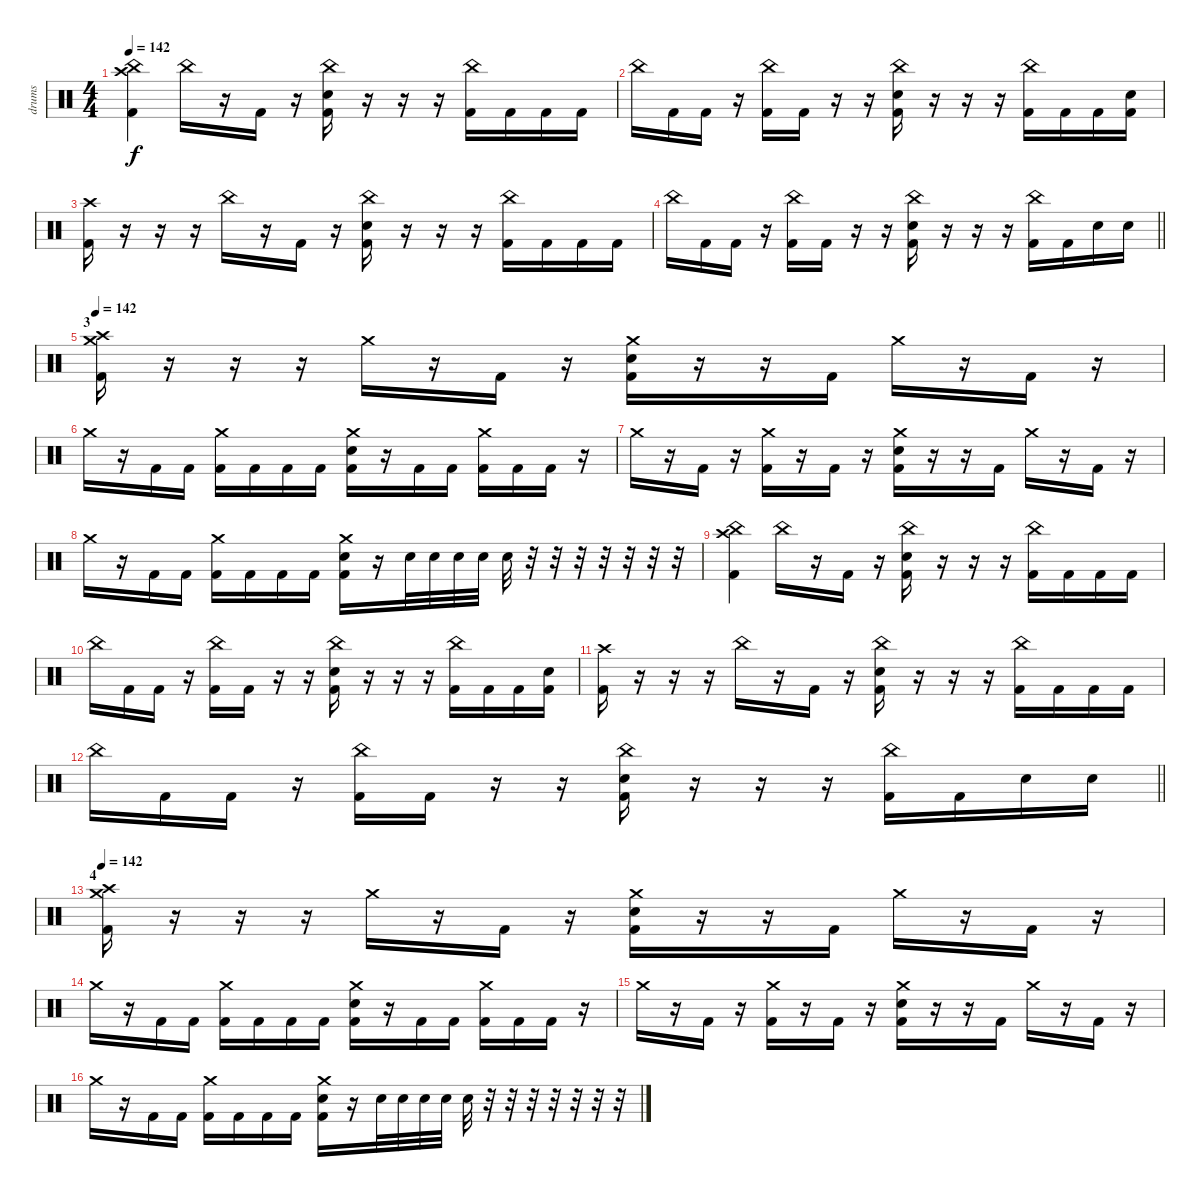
\track ("drums" "drums") {instrument percussion}
\staff {score}
\articulation defaults
\ts (4 4)
\tempo 142
\clef neutral
\ks c
("China (hit)" "Crash high (hit)" "Kick (hit) 2").4{dy f} "China (hit)".16 r.16 "Kick (hit) 2".16 r.16 ("China (hit)" "Electric Snare (hit)" "Kick (hit) 2").16 r.16 r.16 r.16 ("China (hit)" "Kick (hit) 2").16 "Kick (hit) 2".16 "Kick (hit) 2".16 "Kick (hit) 2".16 |
"China (hit)".16 "Kick (hit) 2".16 "Kick (hit) 2".16 r.16 ("China (hit)" "Kick (hit) 2").16 "Kick (hit) 2".16 r.16 r.16 ("China (hit)" "Electric Snare (hit)" "Kick (hit) 2").16 r.16 r.16 r.16 ("China (hit)" "Kick (hit) 2").16 "Kick (hit) 2".16 "Kick (hit) 2".16 ("Electric Snare (hit)" "Kick (hit) 2").16 |
("Crash high (hit)" "Kick (hit) 2").16 r.16 r.16 r.16 "China (hit)".16 r.16 "Kick (hit) 2".16 r.16 ("China (hit)" "Electric Snare (hit)" "Kick (hit) 2").16 r.16 r.16 r.16 ("China (hit)" "Kick (hit) 2").16 "Kick (hit) 2".16 "Kick (hit) 2".16 "Kick (hit) 2".16 |
\barLineRight lightlight "China (hit)".16 "Kick (hit) 2".16 "Kick (hit) 2".16
r.16 ("China (hit)" "Kick (hit) 2").16 "Kick (hit) 2".16 r.16 r.16 ("China (hit)" "Electric Snare (hit)" "Kick (hit) 2").16 r.16 r.16 r.16 ("China (hit)" "Kick (hit) 2").16 "Kick (hit) 2".16 "Electric Snare (hit)".16 "Electric Snare (hit)".16 |
\section ("" "3")
\tempo 142
("Crash medium (hit)" "Crash high (hit)" "Kick (hit) 2").16 r.16 r.16 r.16 "Crash medium (hit)".16 r.16 "Kick (hit) 2".16 r.16 ("Crash medium (hit)" "Electric Snare (hit)" "Kick (hit) 2").16 r.16 r.16 "Kick (hit) 2".16 "Crash medium (hit)".16 r.16 "Kick (hit) 2".16 r.16 |
"Crash medium (hit)".16 r.16 "Kick (hit) 2".16 "Kick (hit) 2".16 ("Crash medium (hit)" "Kick (hit) 2").16 "Kick (hit) 2".16 "Kick (hit) 2".16 "Kick (hit) 2".16 ("Crash medium (hit)" "Electric Snare (hit)" "Kick (hit) 2").16 r.16 "Kick (hit) 2".16 "Kick (hit) 2".16 ("Crash medium (hit)" "Kick (hit) 2").16 "Kick (hit) 2".16 "Kick (hit) 2".16 r.16 |
"Crash medium (hit)".16 r.16 "Kick (hit) 2".16 r.16 ("Crash medium (hit)" "Kick (hit) 2").16 r.16 "Kick (hit) 2".16 r.16 ("Crash medium (hit)" "Electric Snare (hit)" "Kick (hit) 2").16 r.16 r.16 "Kick (hit) 2".16 "Crash medium (hit)".16 r.16 "Kick (hit) 2".16 r.16 |
"Crash medium (hit)".16 r.16 "Kick (hit) 2".16 "Kick (hit) 2".16 ("Crash medium (hit)" "Kick (hit) 2").16 "Kick (hit) 2".16 "Kick (hit) 2".16 "Kick (hit) 2".16 ("Crash medium (hit)" "Electric Snare (hit)" "Kick (hit) 2").16 r.16 "Electric Snare (hit)".32 "Electric Snare (hit)".32 "Electric Snare (hit)".32 "Electric Snare (hit)".32 "Electric Snare (hit)".32 r.32 r.32 r.32 r.32 r.32 r.32 r.32 |
("China (hit)" "Crash high (hit)" "Kick (hit) 2").4 "China (hit)".16 r.16 "Kick (hit) 2".16 r.16 ("China (hit)" "Electric Snare (hit)" "Kick (hit) 2").16 r.16 r.16 r.16 ("China (hit)" "Kick (hit) 2").16 "Kick (hit) 2".16 "Kick (hit) 2".16 "Kick (hit) 2".16 |
"China (hit)".16 "Kick (hit) 2".16 "Kick (hit) 2".16 r.16 ("China (hit)" "Kick (hit) 2").16 "Kick (hit) 2".16 r.16 r.16 ("China (hit)" "Electric Snare (hit)" "Kick (hit) 2").16 r.16 r.16 r.16 ("China (hit)" "Kick (hit) 2").16 "Kick (hit) 2".16 "Kick (hit) 2".16 ("Electric Snare (hit)" "Kick (hit) 2").16 |
("Crash high (hit)" "Kick (hit) 2").16 r.16 r.16 r.16 "China (hit)".16 r.16 "Kick (hit) 2".16 r.16 ("China (hit)" "Electric Snare (hit)" "Kick (hit) 2").16 r.16 r.16 r.16 ("China (hit)" "Kick (hit) 2").16 "Kick (hit) 2".16 "Kick (hit) 2".16 "Kick (hit) 2".16 |
\barLineRight lightlight "China (hit)".16 "Kick (hit) 2".16 "Kick (hit) 2".16
r.16 ("China (hit)" "Kick (hit) 2").16 "Kick (hit) 2".16 r.16 r.16 ("China (hit)" "Electric Snare (hit)" "Kick (hit) 2").16 r.16 r.16 r.16 ("China (hit)" "Kick (hit) 2").16 "Kick (hit) 2".16 "Electric Snare (hit)".16 "Electric Snare (hit)".16 |
\section ("" "4")
\tempo 142
("Crash medium (hit)" "Crash high (hit)" "Kick (hit) 2").16 r.16 r.16 r.16 "Crash medium (hit)".16 r.16 "Kick (hit) 2".16 r.16 ("Crash medium (hit)" "Electric Snare (hit)" "Kick (hit) 2").16 r.16 r.16 "Kick (hit) 2".16 "Crash medium (hit)".16 r.16 "Kick (hit) 2".16 r.16 |
"Crash medium (hit)".16 r.16 "Kick (hit) 2".16 "Kick (hit) 2".16 ("Crash medium (hit)" "Kick (hit) 2").16 "Kick (hit) 2".16 "Kick (hit) 2".16 "Kick (hit) 2".16 ("Crash medium (hit)" "Electric Snare (hit)" "Kick (hit) 2").16 r.16 "Kick (hit) 2".16 "Kick (hit) 2".16 ("Crash medium (hit)" "Kick (hit) 2").16 "Kick (hit) 2".16 "Kick (hit) 2".16 r.16 |
"Crash medium (hit)".16 r.16 "Kick (hit) 2".16 r.16 ("Crash medium (hit)" "Kick (hit) 2").16 r.16 "Kick (hit) 2".16 r.16 ("Crash medium (hit)" "Electric Snare (hit)" "Kick (hit) 2").16 r.16 r.16 "Kick (hit) 2".16 "Crash medium (hit)".16 r.16 "Kick (hit) 2".16 r.16 |
"Crash medium (hit)".16 r.16 "Kick (hit) 2".16 "Kick (hit) 2".16 ("Crash medium (hit)" "Kick (hit) 2").16 "Kick (hit) 2".16 "Kick (hit) 2".16 "Kick (hit) 2".16 ("Crash medium (hit)" "Electric Snare (hit)" "Kick (hit) 2").16 r.16 "Electric Snare (hit)".32 "Electric Snare (hit)".32 "Electric Snare (hit)".32 "Electric Snare (hit)".32 "Electric Snare (hit)".32 r.32 r.32 r.32 r.32 r.32 r.32 r.32
